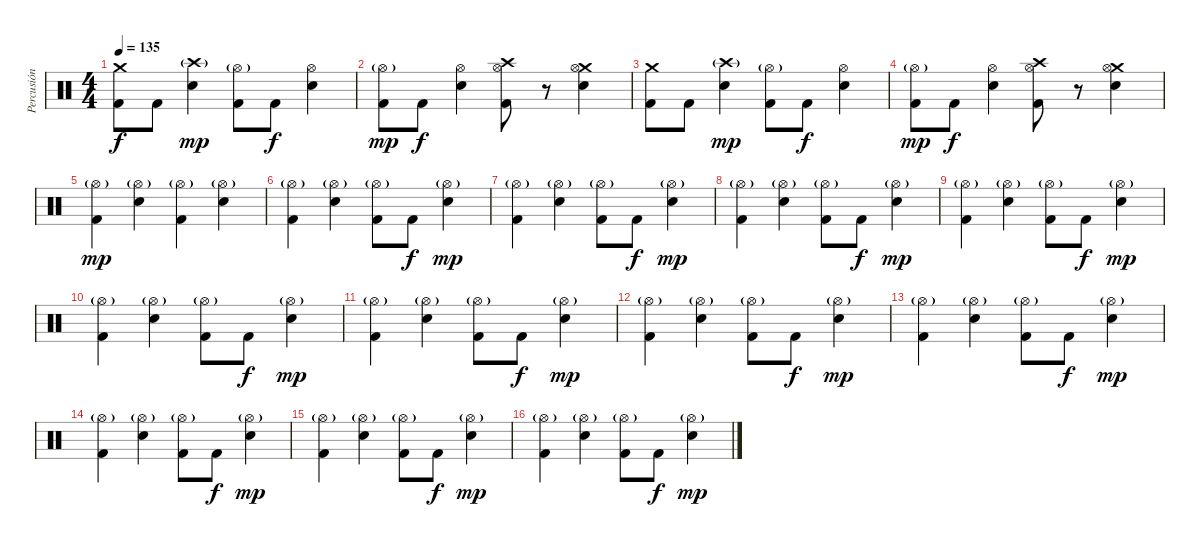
\track ("Percusión" "Percusión") {instrument percussion}
\staff {score}
\articulation defaults
\ts (4 4)
\tempo 135
\clef neutral
\ks c
("Crash medium (hit)" "Kick (hit) 2").8{dy f} "Kick (hit) 2".8 ("Crash high (hit)"{g} "Snare (hit) 2").4{dy mp} ("Hi-Hat (open)"{g} "Kick (hit) 2").8 "Kick (hit) 2".8{dy f} ("Hi-Hat (open)" "Snare (hit) 2").4 |
("Hi-Hat (open)"{g} "Kick (hit) 2").8{dy mp} "Kick (hit) 2".8{dy f} ("Hi-Hat (open)" "Snare (hit) 2").4 ("Crash high (hit)" "Hi-Hat (open)" "Kick (hit) 2").8 r.8 ("Crash medium (hit)" "Hi-Hat (open)" "Snare (hit) 2").4 |
("Crash medium (hit)" "Kick (hit) 2").8 "Kick (hit) 2".8 ("Crash high (hit)"{g} "Snare (hit) 2").4{dy mp} ("Hi-Hat (open)"{g} "Kick (hit) 2").8 "Kick (hit) 2".8{dy f} ("Hi-Hat (open)" "Snare (hit) 2").4 |
("Hi-Hat (open)"{g} "Kick (hit) 2").8{dy mp} "Kick (hit) 2".8{dy f} ("Hi-Hat (open)" "Snare (hit) 2").4 ("Crash high (hit)" "Hi-Hat (open)" "Kick (hit) 2").8 r.8 ("Crash medium (hit)" "Hi-Hat (open)" "Snare (hit) 2").4 |
("Hi-Hat (open)"{g} "Kick (hit) 2").4{dy mp} ("Hi-Hat (open)"{g} "Snare (hit) 2").4 ("Hi-Hat (open)"{g} "Kick (hit) 2").4 ("Hi-Hat (open)"{g} "Snare (hit) 2").4 |
("Hi-Hat (open)"{g} "Kick (hit) 2").4 ("Hi-Hat (open)"{g} "Snare (hit) 2").4 ("Hi-Hat (open)"{g} "Kick (hit) 2").8 "Kick (hit) 2".8{dy f} ("Hi-Hat (open)"{g} "Snare (hit) 2").4{dy mp} |
("Hi-Hat (open)"{g} "Kick (hit) 2").4 ("Hi-Hat (open)"{g} "Snare (hit) 2").4 ("Hi-Hat (open)"{g} "Kick (hit) 2").8 "Kick (hit) 2".8{dy f} ("Hi-Hat (open)"{g} "Snare (hit) 2").4{dy mp} |
("Hi-Hat (open)"{g} "Kick (hit) 2").4 ("Hi-Hat (open)"{g} "Snare (hit) 2").4 ("Hi-Hat (open)"{g} "Kick (hit) 2").8 "Kick (hit) 2".8{dy f} ("Hi-Hat (open)"{g} "Snare (hit) 2").4{dy mp} |
("Hi-Hat (open)"{g} "Kick (hit) 2").4 ("Hi-Hat (open)"{g} "Snare (hit) 2").4 ("Hi-Hat (open)"{g} "Kick (hit) 2").8 "Kick (hit) 2".8{dy f} ("Hi-Hat (open)"{g} "Snare (hit) 2").4{dy mp} |
("Hi-Hat (open)"{g} "Kick (hit) 2").4 ("Hi-Hat (open)"{g} "Snare (hit) 2").4 ("Hi-Hat (open)"{g} "Kick (hit) 2").8 "Kick (hit) 2".8{dy f} ("Hi-Hat (open)"{g} "Snare (hit) 2").4{dy mp} |
("Hi-Hat (open)"{g} "Kick (hit) 2").4 ("Hi-Hat (open)"{g} "Snare (hit) 2").4 ("Hi-Hat (open)"{g} "Kick (hit) 2").8 "Kick (hit) 2".8{dy f} ("Hi-Hat (open)"{g} "Snare (hit) 2").4{dy mp} |
("Hi-Hat (open)"{g} "Kick (hit) 2").4 ("Hi-Hat (open)"{g} "Snare (hit) 2").4 ("Hi-Hat (open)"{g} "Kick (hit) 2").8 "Kick (hit) 2".8{dy f} ("Hi-Hat (open)"{g} "Snare (hit) 2").4{dy mp} |
("Hi-Hat (open)"{g} "Kick (hit) 2").4 ("Hi-Hat (open)"{g} "Snare (hit) 2").4 ("Hi-Hat (open)"{g} "Kick (hit) 2").8 "Kick (hit) 2".8{dy f} ("Hi-Hat (open)"{g} "Snare (hit) 2").4{dy mp} |
("Hi-Hat (open)"{g} "Kick (hit) 2").4 ("Hi-Hat (open)"{g} "Snare (hit) 2").4 ("Hi-Hat (open)"{g} "Kick (hit) 2").8 "Kick (hit) 2".8{dy f} ("Hi-Hat (open)"{g} "Snare (hit) 2").4{dy mp} |
("Hi-Hat (open)"{g} "Kick (hit) 2").4 ("Hi-Hat (open)"{g} "Snare (hit) 2").4 ("Hi-Hat (open)"{g} "Kick (hit) 2").8 "Kick (hit) 2".8{dy f} ("Hi-Hat (open)"{g} "Snare (hit) 2").4{dy mp} |
("Hi-Hat (open)"{g} "Kick (hit) 2").4 ("Hi-Hat (open)"{g} "Snare (hit) 2").4 ("Hi-Hat (open)"{g} "Kick (hit) 2").8 "Kick (hit) 2".8{dy f} ("Hi-Hat (open)"{g} "Snare (hit) 2").4{dy mp}
